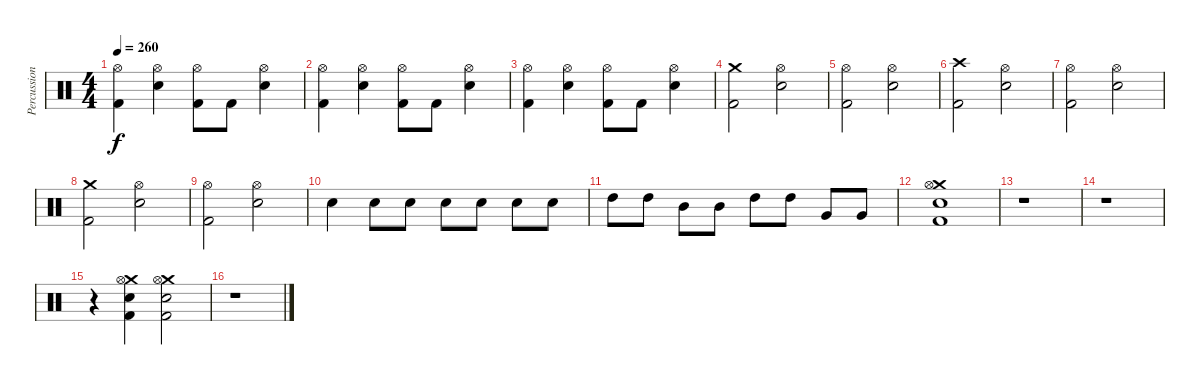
\track ("Percussion" "Percussion") {instrument percussion}
\staff {score}
\articulation defaults
\ts (4 4)
\tempo 260
\clef neutral
\ks c
("Hi-Hat (open)" "Kick (hit) 2").4{dy f} ("Hi-Hat (open)" "Electric Snare (hit)").4 ("Hi-Hat (open)" "Kick (hit) 2").8 "Kick (hit) 2".8 ("Hi-Hat (open)" "Electric Snare (hit)").4 |
("Hi-Hat (open)" "Kick (hit) 2").4 ("Hi-Hat (open)" "Electric Snare (hit)").4 ("Hi-Hat (open)" "Kick (hit) 2").8 "Kick (hit) 2".8 ("Hi-Hat (open)" "Electric Snare (hit)").4 |
("Hi-Hat (open)" "Kick (hit) 2").4 ("Hi-Hat (open)" "Electric Snare (hit)").4 ("Hi-Hat (open)" "Kick (hit) 2").8 "Kick (hit) 2".8 ("Hi-Hat (open)" "Electric Snare (hit)").4 |
("Crash medium (hit)" "Kick (hit) 2").2 ("Hi-Hat (open)" "Electric Snare (hit)").2 |
("Hi-Hat (open)" "Kick (hit) 2").2 ("Hi-Hat (open)" "Electric Snare (hit)").2 |
("Crash high (hit)" "Kick (hit) 2").2 ("Hi-Hat (open)" "Electric Snare (hit)").2 |
("Hi-Hat (open)" "Kick (hit) 2").2 ("Hi-Hat (open)" "Electric Snare (hit)").2 |
("Crash medium (hit)" "Kick (hit) 2").2 ("Hi-Hat (open)" "Electric Snare (hit)").2 |
("Hi-Hat (open)" "Kick (hit) 2").2 ("Hi-Hat (open)" "Electric Snare (hit)").2 |
"Electric Snare (hit)".4 "Electric Snare (hit)".8 "Electric Snare (hit)".8 "Electric Snare (hit)".8 "Electric Snare (hit)".8 "Electric Snare (hit)".8 "Electric Snare (hit)".8 |
"High Tom (hit)".8 "High Tom (hit)".8 "Mid Tom (hit)".8 "Mid Tom (hit)".8 "High Tom (hit)".8 "High Tom (hit)".8 "Very Low Tom (hit)".8 "Very Low Tom (hit)".8 |
("Crash medium (hit)" "Hi-Hat (open)" "Electric Snare (hit)" "Kick (hit) 2").1 |
r.1 |
r.1 |
r.4 ("Crash medium (hit)" "Hi-Hat (open)" "Electric Snare (hit)" "Kick (hit) 2").4 ("Crash medium (hit)" "Hi-Hat (open)" "Electric Snare (hit)" "Kick (hit) 2").2 |
r.1
